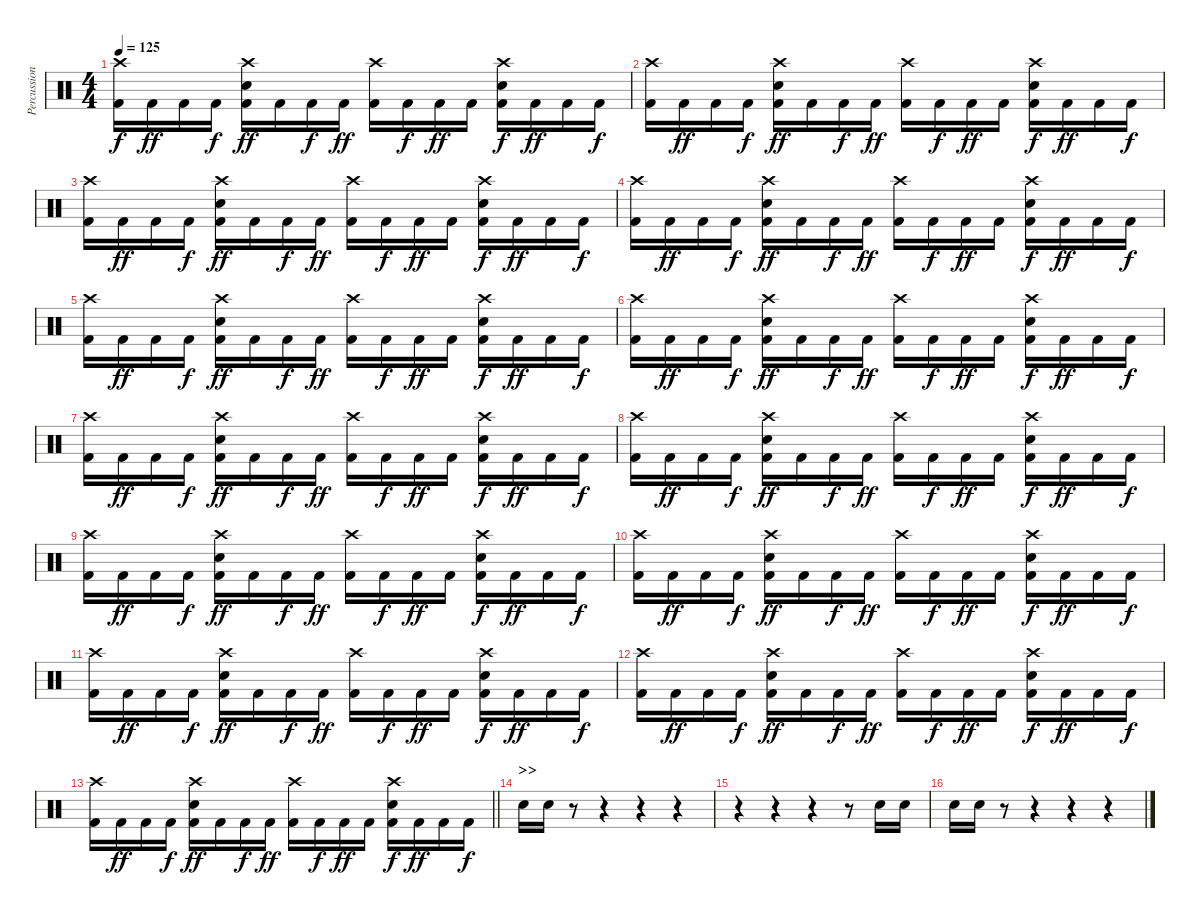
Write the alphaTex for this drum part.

\track ("Percussion" "Percussion") {instrument percussion}
\staff {score}
\articulation defaults
\ts (4 4)
\tempo 125
\clef neutral
\ks c
("Crash high (hit)" "Kick (hit) 2").16{dy f} "Kick (hit) 2".16{dy ff} "Kick (hit) 2".16 "Kick (hit) 2".16{dy f} ("Crash high (hit)" "Electric Snare (hit)" "Kick (hit) 2").16{dy ff} "Kick (hit) 2".16 "Kick (hit) 2".16{dy f} "Kick (hit) 2".16{dy ff} ("Crash high (hit)" "Kick (hit) 2").16 "Kick (hit) 2".16{dy f} "Kick (hit) 2".16{dy ff} "Kick (hit) 2".16 ("Crash high (hit)" "Electric Snare (hit)" "Kick (hit) 2").16{dy f} "Kick (hit) 2".16{dy ff} "Kick (hit) 2".16 "Kick (hit) 2".16{dy f} |
("Crash high (hit)" "Kick (hit) 2").16 "Kick (hit) 2".16{dy ff} "Kick (hit) 2".16 "Kick (hit) 2".16{dy f} ("Crash high (hit)" "Electric Snare (hit)" "Kick (hit) 2").16{dy ff} "Kick (hit) 2".16 "Kick (hit) 2".16{dy f} "Kick (hit) 2".16{dy ff} ("Crash high (hit)" "Kick (hit) 2").16 "Kick (hit) 2".16{dy f} "Kick (hit) 2".16{dy ff} "Kick (hit) 2".16 ("Crash high (hit)" "Electric Snare (hit)" "Kick (hit) 2").16{dy f} "Kick (hit) 2".16{dy ff} "Kick (hit) 2".16 "Kick (hit) 2".16{dy f} |
("Crash high (hit)" "Kick (hit) 2").16 "Kick (hit) 2".16{dy ff} "Kick (hit) 2".16 "Kick (hit) 2".16{dy f} ("Crash high (hit)" "Electric Snare (hit)" "Kick (hit) 2").16{dy ff} "Kick (hit) 2".16 "Kick (hit) 2".16{dy f} "Kick (hit) 2".16{dy ff} ("Crash high (hit)" "Kick (hit) 2").16 "Kick (hit) 2".16{dy f} "Kick (hit) 2".16{dy ff} "Kick (hit) 2".16 ("Crash high (hit)" "Electric Snare (hit)" "Kick (hit) 2").16{dy f} "Kick (hit) 2".16{dy ff} "Kick (hit) 2".16 "Kick (hit) 2".16{dy f} |
("Crash high (hit)" "Kick (hit) 2").16 "Kick (hit) 2".16{dy ff} "Kick (hit) 2".16 "Kick (hit) 2".16{dy f} ("Crash high (hit)" "Electric Snare (hit)" "Kick (hit) 2").16{dy ff} "Kick (hit) 2".16 "Kick (hit) 2".16{dy f} "Kick (hit) 2".16{dy ff} ("Crash high (hit)" "Kick (hit) 2").16 "Kick (hit) 2".16{dy f} "Kick (hit) 2".16{dy ff} "Kick (hit) 2".16 ("Crash high (hit)" "Electric Snare (hit)" "Kick (hit) 2").16{dy f} "Kick (hit) 2".16{dy ff} "Kick (hit) 2".16 "Kick (hit) 2".16{dy f} |
("Crash high (hit)" "Kick (hit) 2").16 "Kick (hit) 2".16{dy ff} "Kick (hit) 2".16 "Kick (hit) 2".16{dy f} ("Crash high (hit)" "Electric Snare (hit)" "Kick (hit) 2").16{dy ff} "Kick (hit) 2".16 "Kick (hit) 2".16{dy f} "Kick (hit) 2".16{dy ff} ("Crash high (hit)" "Kick (hit) 2").16 "Kick (hit) 2".16{dy f} "Kick (hit) 2".16{dy ff} "Kick (hit) 2".16 ("Crash high (hit)" "Electric Snare (hit)" "Kick (hit) 2").16{dy f} "Kick (hit) 2".16{dy ff} "Kick (hit) 2".16 "Kick (hit) 2".16{dy f} |
("Crash high (hit)" "Kick (hit) 2").16 "Kick (hit) 2".16{dy ff} "Kick (hit) 2".16 "Kick (hit) 2".16{dy f} ("Crash high (hit)" "Electric Snare (hit)" "Kick (hit) 2").16{dy ff} "Kick (hit) 2".16 "Kick (hit) 2".16{dy f} "Kick (hit) 2".16{dy ff} ("Crash high (hit)" "Kick (hit) 2").16 "Kick (hit) 2".16{dy f} "Kick (hit) 2".16{dy ff} "Kick (hit) 2".16 ("Crash high (hit)" "Electric Snare (hit)" "Kick (hit) 2").16{dy f} "Kick (hit) 2".16{dy ff} "Kick (hit) 2".16 "Kick (hit) 2".16{dy f} |
("Crash high (hit)" "Kick (hit) 2").16 "Kick (hit) 2".16{dy ff} "Kick (hit) 2".16 "Kick (hit) 2".16{dy f} ("Crash high (hit)" "Electric Snare (hit)" "Kick (hit) 2").16{dy ff} "Kick (hit) 2".16 "Kick (hit) 2".16{dy f} "Kick (hit) 2".16{dy ff} ("Crash high (hit)" "Kick (hit) 2").16 "Kick (hit) 2".16{dy f} "Kick (hit) 2".16{dy ff} "Kick (hit) 2".16 ("Crash high (hit)" "Electric Snare (hit)" "Kick (hit) 2").16{dy f} "Kick (hit) 2".16{dy ff} "Kick (hit) 2".16 "Kick (hit) 2".16{dy f} |
("Crash high (hit)" "Kick (hit) 2").16 "Kick (hit) 2".16{dy ff} "Kick (hit) 2".16 "Kick (hit) 2".16{dy f} ("Crash high (hit)" "Electric Snare (hit)" "Kick (hit) 2").16{dy ff} "Kick (hit) 2".16 "Kick (hit) 2".16{dy f} "Kick (hit) 2".16{dy ff} ("Crash high (hit)" "Kick (hit) 2").16 "Kick (hit) 2".16{dy f} "Kick (hit) 2".16{dy ff} "Kick (hit) 2".16 ("Crash high (hit)" "Electric Snare (hit)" "Kick (hit) 2").16{dy f} "Kick (hit) 2".16{dy ff} "Kick (hit) 2".16 "Kick (hit) 2".16{dy f} |
("Crash high (hit)" "Kick (hit) 2").16 "Kick (hit) 2".16{dy ff} "Kick (hit) 2".16 "Kick (hit) 2".16{dy f} ("Crash high (hit)" "Electric Snare (hit)" "Kick (hit) 2").16{dy ff} "Kick (hit) 2".16 "Kick (hit) 2".16{dy f} "Kick (hit) 2".16{dy ff} ("Crash high (hit)" "Kick (hit) 2").16 "Kick (hit) 2".16{dy f} "Kick (hit) 2".16{dy ff} "Kick (hit) 2".16 ("Crash high (hit)" "Electric Snare (hit)" "Kick (hit) 2").16{dy f} "Kick (hit) 2".16{dy ff} "Kick (hit) 2".16 "Kick (hit) 2".16{dy f} |
("Crash high (hit)" "Kick (hit) 2").16 "Kick (hit) 2".16{dy ff} "Kick (hit) 2".16 "Kick (hit) 2".16{dy f} ("Crash high (hit)" "Electric Snare (hit)" "Kick (hit) 2").16{dy ff} "Kick (hit) 2".16 "Kick (hit) 2".16{dy f} "Kick (hit) 2".16{dy ff} ("Crash high (hit)" "Kick (hit) 2").16 "Kick (hit) 2".16{dy f} "Kick (hit) 2".16{dy ff} "Kick (hit) 2".16 ("Crash high (hit)" "Electric Snare (hit)" "Kick (hit) 2").16{dy f} "Kick (hit) 2".16{dy ff} "Kick (hit) 2".16 "Kick (hit) 2".16{dy f} |
("Crash high (hit)" "Kick (hit) 2").16 "Kick (hit) 2".16{dy ff} "Kick (hit) 2".16 "Kick (hit) 2".16{dy f} ("Crash high (hit)" "Electric Snare (hit)" "Kick (hit) 2").16{dy ff} "Kick (hit) 2".16 "Kick (hit) 2".16{dy f} "Kick (hit) 2".16{dy ff} ("Crash high (hit)" "Kick (hit) 2").16 "Kick (hit) 2".16{dy f} "Kick (hit) 2".16{dy ff} "Kick (hit) 2".16 ("Crash high (hit)" "Electric Snare (hit)" "Kick (hit) 2").16{dy f} "Kick (hit) 2".16{dy ff} "Kick (hit) 2".16 "Kick (hit) 2".16{dy f} |
("Crash high (hit)" "Kick (hit) 2").16 "Kick (hit) 2".16{dy ff} "Kick (hit) 2".16 "Kick (hit) 2".16{dy f} ("Crash high (hit)" "Electric Snare (hit)" "Kick (hit) 2").16{dy ff} "Kick (hit) 2".16 "Kick (hit) 2".16{dy f} "Kick (hit) 2".16{dy ff} ("Crash high (hit)" "Kick (hit) 2").16 "Kick (hit) 2".16{dy f} "Kick (hit) 2".16{dy ff} "Kick (hit) 2".16 ("Crash high (hit)" "Electric Snare (hit)" "Kick (hit) 2").16{dy f} "Kick (hit) 2".16{dy ff} "Kick (hit) 2".16 "Kick (hit) 2".16{dy f} |
\barLineRight lightlight
("Crash high (hit)" "Kick (hit) 2").16 "Kick (hit) 2".16{dy ff} "Kick (hit) 2".16 "Kick (hit) 2".16{dy f} ("Crash high (hit)" "Electric Snare (hit)" "Kick (hit) 2").16{dy ff} "Kick (hit) 2".16 "Kick (hit) 2".16{dy f} "Kick (hit) 2".16{dy ff} ("Crash high (hit)" "Kick (hit) 2").16 "Kick (hit) 2".16{dy f} "Kick (hit) 2".16{dy ff} "Kick (hit) 2".16 ("Crash high (hit)" "Electric Snare (hit)" "Kick (hit) 2").16{dy f} "Kick (hit) 2".16{dy ff} "Kick (hit) 2".16 "Kick (hit) 2".16{dy f} |
\section ("" ">>")
"Electric Snare (hit)".16 "Electric Snare (hit)".16 r.8 r.4 r.4 r.4 |
r.4 r.4 r.4 r.8 "Electric Snare (hit)".16 "Electric Snare (hit)".16 |
"Electric Snare (hit)".16 "Electric Snare (hit)".16 r.8 r.4 r.4 r.4
